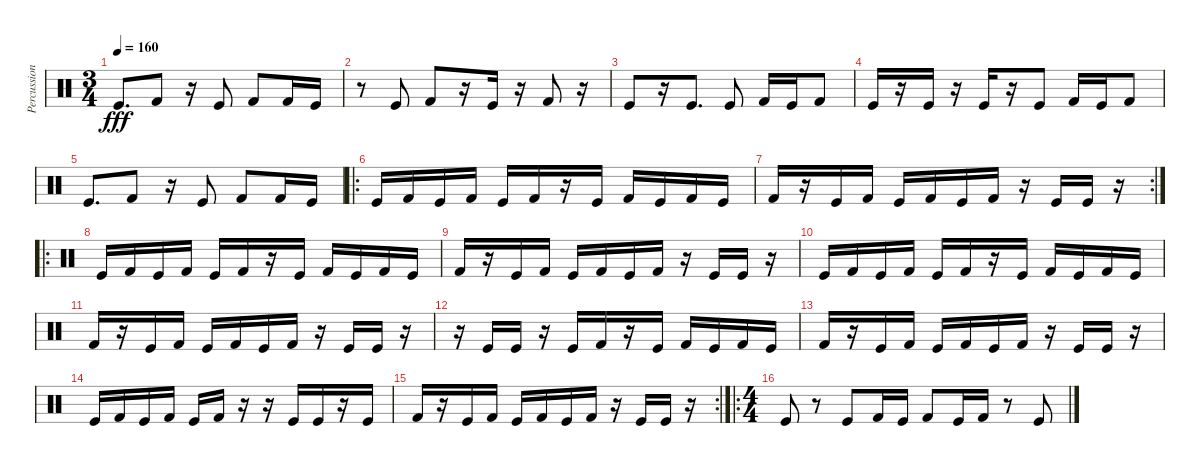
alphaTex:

\track ("Percussion" "Percussion") {instrument percussion}
\staff {score}
\articulation defaults
\ts (3 4)
\tempo 160
\clef neutral
\ks c "Kick (hit)".8{d dy fff} "Kick (hit) 2".8
r.16 "Kick (hit)".8 "Kick (hit) 2".8 "Kick (hit) 2".16 "Kick (hit)".16 |
r.8 "Kick (hit)".8 "Kick (hit) 2".8 r.16 "Kick (hit)".16 r.16 "Kick (hit) 2".8 r.16 |
"Kick (hit)".8 r.16 "Kick (hit)".8{d} "Kick (hit)".8 "Kick (hit) 2".16 "Kick (hit)".16 "Kick (hit) 2".8 |
"Kick (hit)".16 r.16 "Kick (hit)".16 r.16 "Kick (hit)".16 r.16 "Kick (hit)".8 "Kick (hit) 2".16 "Kick (hit)".16 "Kick (hit) 2".8 |
"Kick (hit)".8{d} "Kick (hit) 2".8 r.16 "Kick (hit)".8 "Kick (hit) 2".8 "Kick (hit) 2".16 "Kick (hit)".16 |
\ro "Kick (hit)".16 "Kick (hit) 2".16 "Kick (hit)".16 "Kick (hit) 2".16 "Kick (hit)".16 "Kick (hit) 2".16
r.16 "Kick (hit)".16 "Kick (hit) 2".16 "Kick (hit)".16 "Kick (hit) 2".16 "Kick (hit)".16 |
\rc 2 "Kick (hit) 2".16
r.16 "Kick (hit)".16 "Kick (hit) 2".16 "Kick (hit)".16 "Kick (hit) 2".16 "Kick (hit)".16 "Kick (hit) 2".16 r.16 "Kick (hit)".16 "Kick (hit)".16 r.16 |
\ro "Kick (hit)".16 "Kick (hit) 2".16 "Kick (hit)".16 "Kick (hit) 2".16 "Kick (hit)".16 "Kick (hit) 2".16
r.16 "Kick (hit)".16 "Kick (hit) 2".16 "Kick (hit)".16 "Kick (hit) 2".16 "Kick (hit)".16 |
"Kick (hit) 2".16 r.16 "Kick (hit)".16 "Kick (hit) 2".16 "Kick (hit)".16 "Kick (hit) 2".16 "Kick (hit)".16 "Kick (hit) 2".16 r.16 "Kick (hit)".16 "Kick (hit)".16 r.16 |
"Kick (hit)".16 "Kick (hit) 2".16 "Kick (hit)".16 "Kick (hit) 2".16 "Kick (hit)".16 "Kick (hit) 2".16 r.16 "Kick (hit)".16 "Kick (hit) 2".16 "Kick (hit)".16 "Kick (hit) 2".16 "Kick (hit)".16 |
"Kick (hit) 2".16 r.16 "Kick (hit)".16 "Kick (hit) 2".16 "Kick (hit)".16 "Kick (hit) 2".16 "Kick (hit)".16 "Kick (hit) 2".16 r.16 "Kick (hit)".16 "Kick (hit)".16 r.16 |
r.16 "Kick (hit)".16 "Kick (hit)".16 r.16 "Kick (hit)".16 "Kick (hit) 2".16 r.16 "Kick (hit)".16 "Kick (hit) 2".16 "Kick (hit)".16 "Kick (hit) 2".16 "Kick (hit)".16 |
"Kick (hit) 2".16 r.16 "Kick (hit)".16 "Kick (hit) 2".16 "Kick (hit)".16 "Kick (hit) 2".16 "Kick (hit)".16 "Kick (hit) 2".16 r.16 "Kick (hit)".16 "Kick (hit)".16 r.16 |
"Kick (hit)".16 "Kick (hit) 2".16 "Kick (hit)".16 "Kick (hit) 2".16 "Kick (hit)".16 "Kick (hit) 2".16 r.16 r.16 "Kick (hit)".16 "Kick (hit)".16 r.16 "Kick (hit)".16 |
\rc 2 "Kick (hit) 2".16
r.16 "Kick (hit)".16 "Kick (hit) 2".16 "Kick (hit)".16 "Kick (hit) 2".16 "Kick (hit)".16 "Kick (hit) 2".16 r.16 "Kick (hit)".16 "Kick (hit)".16 r.16 |
\ro
\ts (4 4)
"Kick (hit)".8 r.8 "Kick (hit)".8 "Kick (hit) 2".16 "Kick (hit)".16 "Kick (hit) 2".8 "Kick (hit)".16 "Kick (hit) 2".16 r.8 "Kick (hit)".8
